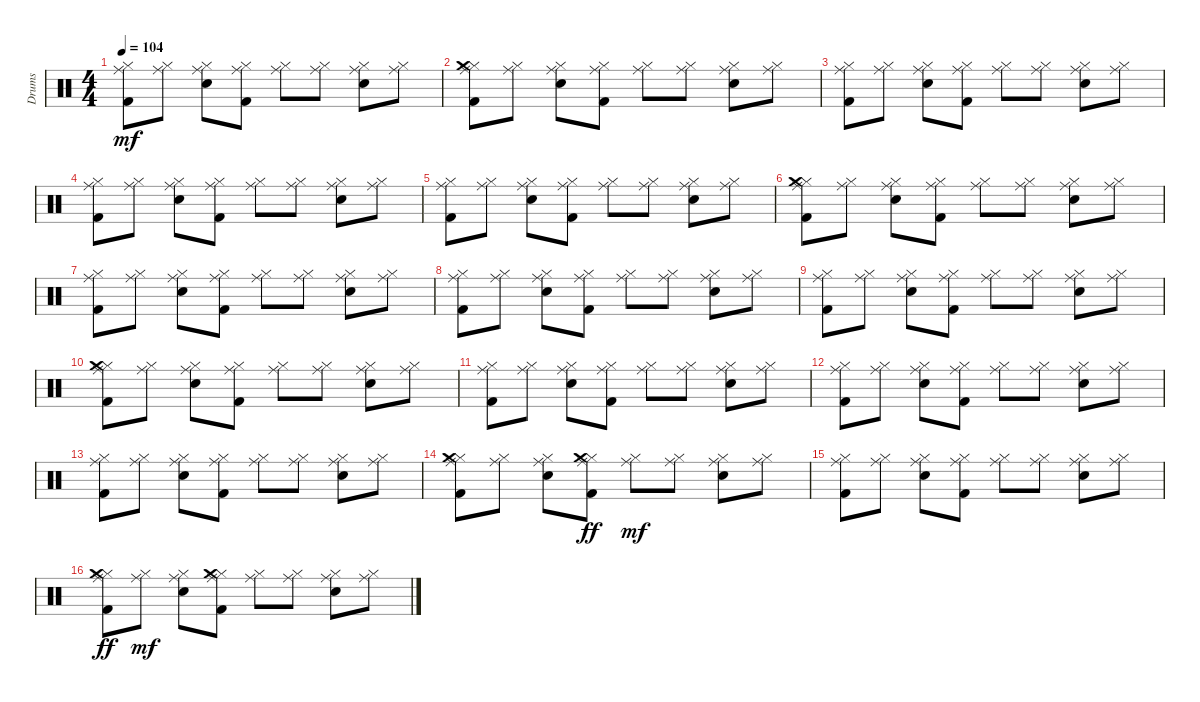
\track ("Drums" "Drums") {instrument percussion}
\staff {score}
\articulation defaults
\ts (4 4)
\tempo 104
\clef neutral
\ks c
("Kick (hit) 2" "Hi-Hat (closed)" "Ride (middle)").8{dy mf} ("Hi-Hat (closed)" "Ride (middle)").8 ("Snare (hit) 2" "Hi-Hat (closed)" "Ride (middle)").8 ("Kick (hit) 2" "Hi-Hat (closed)" "Ride (middle)").8 ("Hi-Hat (closed)" "Ride (middle)").8 ("Hi-Hat (closed)" "Ride (middle)").8 ("Snare (hit) 2" "Hi-Hat (closed)" "Ride (middle)").8 ("Hi-Hat (closed)" "Ride (middle)").8 |
("Kick (hit) 2" "Hi-Hat (closed)" "Crash medium (hit)" "Ride (middle)").8 ("Hi-Hat (closed)" "Ride (middle)").8 ("Snare (hit) 2" "Hi-Hat (closed)" "Ride (middle)").8 ("Kick (hit) 2" "Hi-Hat (closed)" "Ride (middle)").8 ("Hi-Hat (closed)" "Ride (middle)").8 ("Hi-Hat (closed)" "Ride (middle)").8 ("Snare (hit) 2" "Hi-Hat (closed)" "Ride (middle)").8 ("Hi-Hat (closed)" "Ride (middle)").8 |
("Kick (hit) 2" "Hi-Hat (closed)" "Ride (middle)").8 ("Hi-Hat (closed)" "Ride (middle)").8 ("Snare (hit) 2" "Hi-Hat (closed)" "Ride (middle)").8 ("Kick (hit) 2" "Hi-Hat (closed)" "Ride (middle)").8 ("Hi-Hat (closed)" "Ride (middle)").8 ("Hi-Hat (closed)" "Ride (middle)").8 ("Snare (hit) 2" "Hi-Hat (closed)" "Ride (middle)").8 ("Hi-Hat (closed)" "Ride (middle)").8 |
("Kick (hit) 2" "Hi-Hat (closed)" "Ride (middle)").8 ("Hi-Hat (closed)" "Ride (middle)").8 ("Snare (hit) 2" "Hi-Hat (closed)" "Ride (middle)").8 ("Kick (hit) 2" "Hi-Hat (closed)" "Ride (middle)").8 ("Hi-Hat (closed)" "Ride (middle)").8 ("Hi-Hat (closed)" "Ride (middle)").8 ("Snare (hit) 2" "Hi-Hat (closed)" "Ride (middle)").8 ("Hi-Hat (closed)" "Ride (middle)").8 |
("Kick (hit) 2" "Hi-Hat (closed)" "Ride (middle)").8 ("Hi-Hat (closed)" "Ride (middle)").8 ("Snare (hit) 2" "Hi-Hat (closed)" "Ride (middle)").8 ("Kick (hit) 2" "Hi-Hat (closed)" "Ride (middle)").8 ("Hi-Hat (closed)" "Ride (middle)").8 ("Hi-Hat (closed)" "Ride (middle)").8 ("Snare (hit) 2" "Hi-Hat (closed)" "Ride (middle)").8 ("Hi-Hat (closed)" "Ride (middle)").8 |
("Kick (hit) 2" "Hi-Hat (closed)" "Crash medium (hit)" "Ride (middle)").8 ("Hi-Hat (closed)" "Ride (middle)").8 ("Snare (hit) 2" "Hi-Hat (closed)" "Ride (middle)").8 ("Kick (hit) 2" "Hi-Hat (closed)" "Ride (middle)").8 ("Hi-Hat (closed)" "Ride (middle)").8 ("Hi-Hat (closed)" "Ride (middle)").8 ("Snare (hit) 2" "Hi-Hat (closed)" "Ride (middle)").8 ("Hi-Hat (closed)" "Ride (middle)").8 |
("Kick (hit) 2" "Hi-Hat (closed)" "Ride (middle)").8 ("Hi-Hat (closed)" "Ride (middle)").8 ("Snare (hit) 2" "Hi-Hat (closed)" "Ride (middle)").8 ("Kick (hit) 2" "Hi-Hat (closed)" "Ride (middle)").8 ("Hi-Hat (closed)" "Ride (middle)").8 ("Hi-Hat (closed)" "Ride (middle)").8 ("Snare (hit) 2" "Hi-Hat (closed)" "Ride (middle)").8 ("Hi-Hat (closed)" "Ride (middle)").8 |
("Kick (hit) 2" "Hi-Hat (closed)" "Ride (middle)").8 ("Hi-Hat (closed)" "Ride (middle)").8 ("Snare (hit) 2" "Hi-Hat (closed)" "Ride (middle)").8 ("Kick (hit) 2" "Hi-Hat (closed)" "Ride (middle)").8 ("Hi-Hat (closed)" "Ride (middle)").8 ("Hi-Hat (closed)" "Ride (middle)").8 ("Snare (hit) 2" "Hi-Hat (closed)" "Ride (middle)").8 ("Hi-Hat (closed)" "Ride (middle)").8 |
("Kick (hit) 2" "Hi-Hat (closed)" "Ride (middle)").8 ("Hi-Hat (closed)" "Ride (middle)").8 ("Snare (hit) 2" "Hi-Hat (closed)" "Ride (middle)").8 ("Kick (hit) 2" "Hi-Hat (closed)" "Ride (middle)").8 ("Hi-Hat (closed)" "Ride (middle)").8 ("Hi-Hat (closed)" "Ride (middle)").8 ("Snare (hit) 2" "Hi-Hat (closed)" "Ride (middle)").8 ("Hi-Hat (closed)" "Ride (middle)").8 |
("Kick (hit) 2" "Hi-Hat (closed)" "Crash medium (hit)" "Ride (middle)").8 ("Hi-Hat (closed)" "Ride (middle)").8 ("Snare (hit) 2" "Hi-Hat (closed)" "Ride (middle)").8 ("Kick (hit) 2" "Hi-Hat (closed)" "Ride (middle)").8 ("Hi-Hat (closed)" "Ride (middle)").8 ("Hi-Hat (closed)" "Ride (middle)").8 ("Snare (hit) 2" "Hi-Hat (closed)" "Ride (middle)").8 ("Hi-Hat (closed)" "Ride (middle)").8 |
("Kick (hit) 2" "Hi-Hat (closed)" "Ride (middle)").8 ("Hi-Hat (closed)" "Ride (middle)").8 ("Snare (hit) 2" "Hi-Hat (closed)" "Ride (middle)").8 ("Kick (hit) 2" "Hi-Hat (closed)" "Ride (middle)").8 ("Hi-Hat (closed)" "Ride (middle)").8 ("Hi-Hat (closed)" "Ride (middle)").8 ("Snare (hit) 2" "Hi-Hat (closed)" "Ride (middle)").8 ("Hi-Hat (closed)" "Ride (middle)").8 |
("Kick (hit) 2" "Hi-Hat (closed)" "Ride (middle)").8 ("Hi-Hat (closed)" "Ride (middle)").8 ("Snare (hit) 2" "Hi-Hat (closed)" "Ride (middle)").8 ("Kick (hit) 2" "Hi-Hat (closed)" "Ride (middle)").8 ("Hi-Hat (closed)" "Ride (middle)").8 ("Hi-Hat (closed)" "Ride (middle)").8 ("Snare (hit) 2" "Hi-Hat (closed)" "Ride (middle)").8 ("Hi-Hat (closed)" "Ride (middle)").8 |
("Kick (hit) 2" "Hi-Hat (closed)" "Ride (middle)").8 ("Hi-Hat (closed)" "Ride (middle)").8 ("Snare (hit) 2" "Hi-Hat (closed)" "Ride (middle)").8 ("Kick (hit) 2" "Hi-Hat (closed)" "Ride (middle)").8 ("Hi-Hat (closed)" "Ride (middle)").8 ("Hi-Hat (closed)" "Ride (middle)").8 ("Snare (hit) 2" "Hi-Hat (closed)" "Ride (middle)").8 ("Hi-Hat (closed)" "Ride (middle)").8 |
("Kick (hit) 2" "Hi-Hat (closed)" "Crash medium (hit)" "Ride (middle)").8 ("Hi-Hat (closed)" "Ride (middle)").8 ("Snare (hit) 2" "Hi-Hat (closed)" "Ride (middle)").8 ("Kick (hit) 2" "Hi-Hat (closed)" "Ride (middle)" "Crash medium (hit)").8{dy ff} ("Hi-Hat (closed)" "Ride (middle)").8{dy mf} ("Hi-Hat (closed)" "Ride (middle)").8 ("Snare (hit) 2" "Hi-Hat (closed)" "Ride (middle)").8 ("Hi-Hat (closed)" "Ride (middle)").8 |
("Kick (hit) 2" "Hi-Hat (closed)" "Ride (middle)").8 ("Hi-Hat (closed)" "Ride (middle)").8 ("Snare (hit) 2" "Hi-Hat (closed)" "Ride (middle)").8 ("Kick (hit) 2" "Hi-Hat (closed)" "Ride (middle)").8 ("Hi-Hat (closed)" "Ride (middle)").8 ("Hi-Hat (closed)" "Ride (middle)").8 ("Snare (hit) 2" "Hi-Hat (closed)" "Ride (middle)").8 ("Hi-Hat (closed)" "Ride (middle)").8 |
("Kick (hit) 2" "Hi-Hat (closed)" "Ride (middle)" "Crash medium (hit)").8{dy ff} ("Hi-Hat (closed)" "Ride (middle)").8{dy mf} ("Snare (hit) 2" "Hi-Hat (closed)" "Ride (middle)").8 ("Kick (hit) 2" "Hi-Hat (closed)" "Ride (middle)" "Crash medium (hit)").8 ("Hi-Hat (closed)" "Ride (middle)").8 ("Hi-Hat (closed)" "Ride (middle)").8 ("Snare (hit) 2" "Hi-Hat (closed)" "Ride (middle)").8 ("Hi-Hat (closed)" "Ride (middle)").8
